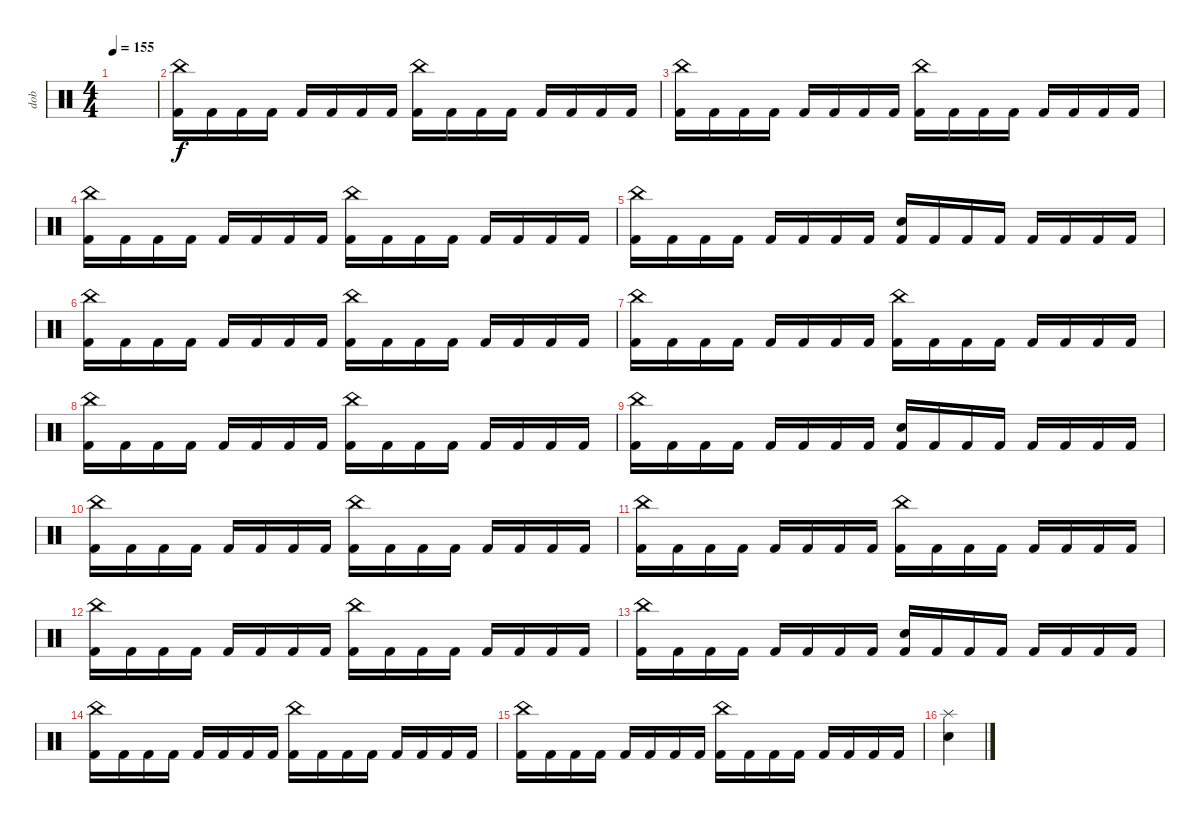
\track ("dob" "dob") {instrument percussion}
\staff {score}
\articulation defaults
\ts (4 4)
\tempo 155
\clef neutral
\ks c
|
("Kick (hit) 2" "China (hit)").16 "Kick (hit) 2".16 "Kick (hit) 2".16 "Kick (hit) 2".16 "Kick (hit) 2".16 "Kick (hit) 2".16 "Kick (hit) 2".16 "Kick (hit) 2".16 ("Kick (hit) 2" "China (hit)").16 "Kick (hit) 2".16 "Kick (hit) 2".16 "Kick (hit) 2".16 "Kick (hit) 2".16 "Kick (hit) 2".16 "Kick (hit) 2".16 "Kick (hit) 2".16 |
("Kick (hit) 2" "China (hit)").16 "Kick (hit) 2".16 "Kick (hit) 2".16 "Kick (hit) 2".16 "Kick (hit) 2".16 "Kick (hit) 2".16 "Kick (hit) 2".16 "Kick (hit) 2".16 ("Kick (hit) 2" "China (hit)").16 "Kick (hit) 2".16 "Kick (hit) 2".16 "Kick (hit) 2".16 "Kick (hit) 2".16 "Kick (hit) 2".16 "Kick (hit) 2".16 "Kick (hit) 2".16 |
("Kick (hit) 2" "China (hit)").16 "Kick (hit) 2".16 "Kick (hit) 2".16 "Kick (hit) 2".16 "Kick (hit) 2".16 "Kick (hit) 2".16 "Kick (hit) 2".16 "Kick (hit) 2".16 ("Kick (hit) 2" "China (hit)").16 "Kick (hit) 2".16 "Kick (hit) 2".16 "Kick (hit) 2".16 "Kick (hit) 2".16 "Kick (hit) 2".16 "Kick (hit) 2".16 "Kick (hit) 2".16 |
("Kick (hit) 2" "China (hit)").16 "Kick (hit) 2".16 "Kick (hit) 2".16 "Kick (hit) 2".16 "Kick (hit) 2".16 "Kick (hit) 2".16 "Kick (hit) 2".16 "Kick (hit) 2".16 ("Kick (hit) 2" "Snare (hit) 2").16 "Kick (hit) 2".16 "Kick (hit) 2".16 "Kick (hit) 2".16 "Kick (hit) 2".16 "Kick (hit) 2".16 "Kick (hit) 2".16 "Kick (hit) 2".16 |
("Kick (hit) 2" "China (hit)").16 "Kick (hit) 2".16 "Kick (hit) 2".16 "Kick (hit) 2".16 "Kick (hit) 2".16 "Kick (hit) 2".16 "Kick (hit) 2".16 "Kick (hit) 2".16 ("Kick (hit) 2" "China (hit)").16 "Kick (hit) 2".16 "Kick (hit) 2".16 "Kick (hit) 2".16 "Kick (hit) 2".16 "Kick (hit) 2".16 "Kick (hit) 2".16 "Kick (hit) 2".16 |
("Kick (hit) 2" "China (hit)").16 "Kick (hit) 2".16 "Kick (hit) 2".16 "Kick (hit) 2".16 "Kick (hit) 2".16 "Kick (hit) 2".16 "Kick (hit) 2".16 "Kick (hit) 2".16 ("Kick (hit) 2" "China (hit)").16 "Kick (hit) 2".16 "Kick (hit) 2".16 "Kick (hit) 2".16 "Kick (hit) 2".16 "Kick (hit) 2".16 "Kick (hit) 2".16 "Kick (hit) 2".16 |
("Kick (hit) 2" "China (hit)").16 "Kick (hit) 2".16 "Kick (hit) 2".16 "Kick (hit) 2".16 "Kick (hit) 2".16 "Kick (hit) 2".16 "Kick (hit) 2".16 "Kick (hit) 2".16 ("Kick (hit) 2" "China (hit)").16 "Kick (hit) 2".16 "Kick (hit) 2".16 "Kick (hit) 2".16 "Kick (hit) 2".16 "Kick (hit) 2".16 "Kick (hit) 2".16 "Kick (hit) 2".16 |
("Kick (hit) 2" "China (hit)").16 "Kick (hit) 2".16 "Kick (hit) 2".16 "Kick (hit) 2".16 "Kick (hit) 2".16 "Kick (hit) 2".16 "Kick (hit) 2".16 "Kick (hit) 2".16 ("Kick (hit) 2" "Snare (hit) 2").16 "Kick (hit) 2".16 "Kick (hit) 2".16 "Kick (hit) 2".16 "Kick (hit) 2".16 "Kick (hit) 2".16 "Kick (hit) 2".16 "Kick (hit) 2".16 |
("Kick (hit) 2" "China (hit)").16 "Kick (hit) 2".16 "Kick (hit) 2".16 "Kick (hit) 2".16 "Kick (hit) 2".16 "Kick (hit) 2".16 "Kick (hit) 2".16 "Kick (hit) 2".16 ("Kick (hit) 2" "China (hit)").16 "Kick (hit) 2".16 "Kick (hit) 2".16 "Kick (hit) 2".16 "Kick (hit) 2".16 "Kick (hit) 2".16 "Kick (hit) 2".16 "Kick (hit) 2".16 |
("Kick (hit) 2" "China (hit)").16 "Kick (hit) 2".16 "Kick (hit) 2".16 "Kick (hit) 2".16 "Kick (hit) 2".16 "Kick (hit) 2".16 "Kick (hit) 2".16 "Kick (hit) 2".16 ("Kick (hit) 2" "China (hit)").16 "Kick (hit) 2".16 "Kick (hit) 2".16 "Kick (hit) 2".16 "Kick (hit) 2".16 "Kick (hit) 2".16 "Kick (hit) 2".16 "Kick (hit) 2".16 |
("Kick (hit) 2" "China (hit)").16 "Kick (hit) 2".16 "Kick (hit) 2".16 "Kick (hit) 2".16 "Kick (hit) 2".16 "Kick (hit) 2".16 "Kick (hit) 2".16 "Kick (hit) 2".16 ("Kick (hit) 2" "China (hit)").16 "Kick (hit) 2".16 "Kick (hit) 2".16 "Kick (hit) 2".16 "Kick (hit) 2".16 "Kick (hit) 2".16 "Kick (hit) 2".16 "Kick (hit) 2".16 |
("Kick (hit) 2" "China (hit)").16 "Kick (hit) 2".16 "Kick (hit) 2".16 "Kick (hit) 2".16 "Kick (hit) 2".16 "Kick (hit) 2".16 "Kick (hit) 2".16 "Kick (hit) 2".16 ("Kick (hit) 2" "Snare (hit) 2").16 "Kick (hit) 2".16 "Kick (hit) 2".16 "Kick (hit) 2".16 "Kick (hit) 2".16 "Kick (hit) 2".16 "Kick (hit) 2".16 "Kick (hit) 2".16 |
("Kick (hit) 2" "China (hit)").16 "Kick (hit) 2".16 "Kick (hit) 2".16 "Kick (hit) 2".16 "Kick (hit) 2".16 "Kick (hit) 2".16 "Kick (hit) 2".16 "Kick (hit) 2".16 ("Kick (hit) 2" "China (hit)").16 "Kick (hit) 2".16 "Kick (hit) 2".16 "Kick (hit) 2".16 "Kick (hit) 2".16 "Kick (hit) 2".16 "Kick (hit) 2".16 "Kick (hit) 2".16 |
("Kick (hit) 2" "China (hit)").16 "Kick (hit) 2".16 "Kick (hit) 2".16 "Kick (hit) 2".16 "Kick (hit) 2".16 "Kick (hit) 2".16 "Kick (hit) 2".16 "Kick (hit) 2".16 ("Kick (hit) 2" "China (hit)").16 "Kick (hit) 2".16 "Kick (hit) 2".16 "Kick (hit) 2".16 "Kick (hit) 2".16 "Kick (hit) 2".16 "Kick (hit) 2".16 "Kick (hit) 2".16 |
("Snare (hit) 2" "Splash (hit)").4
